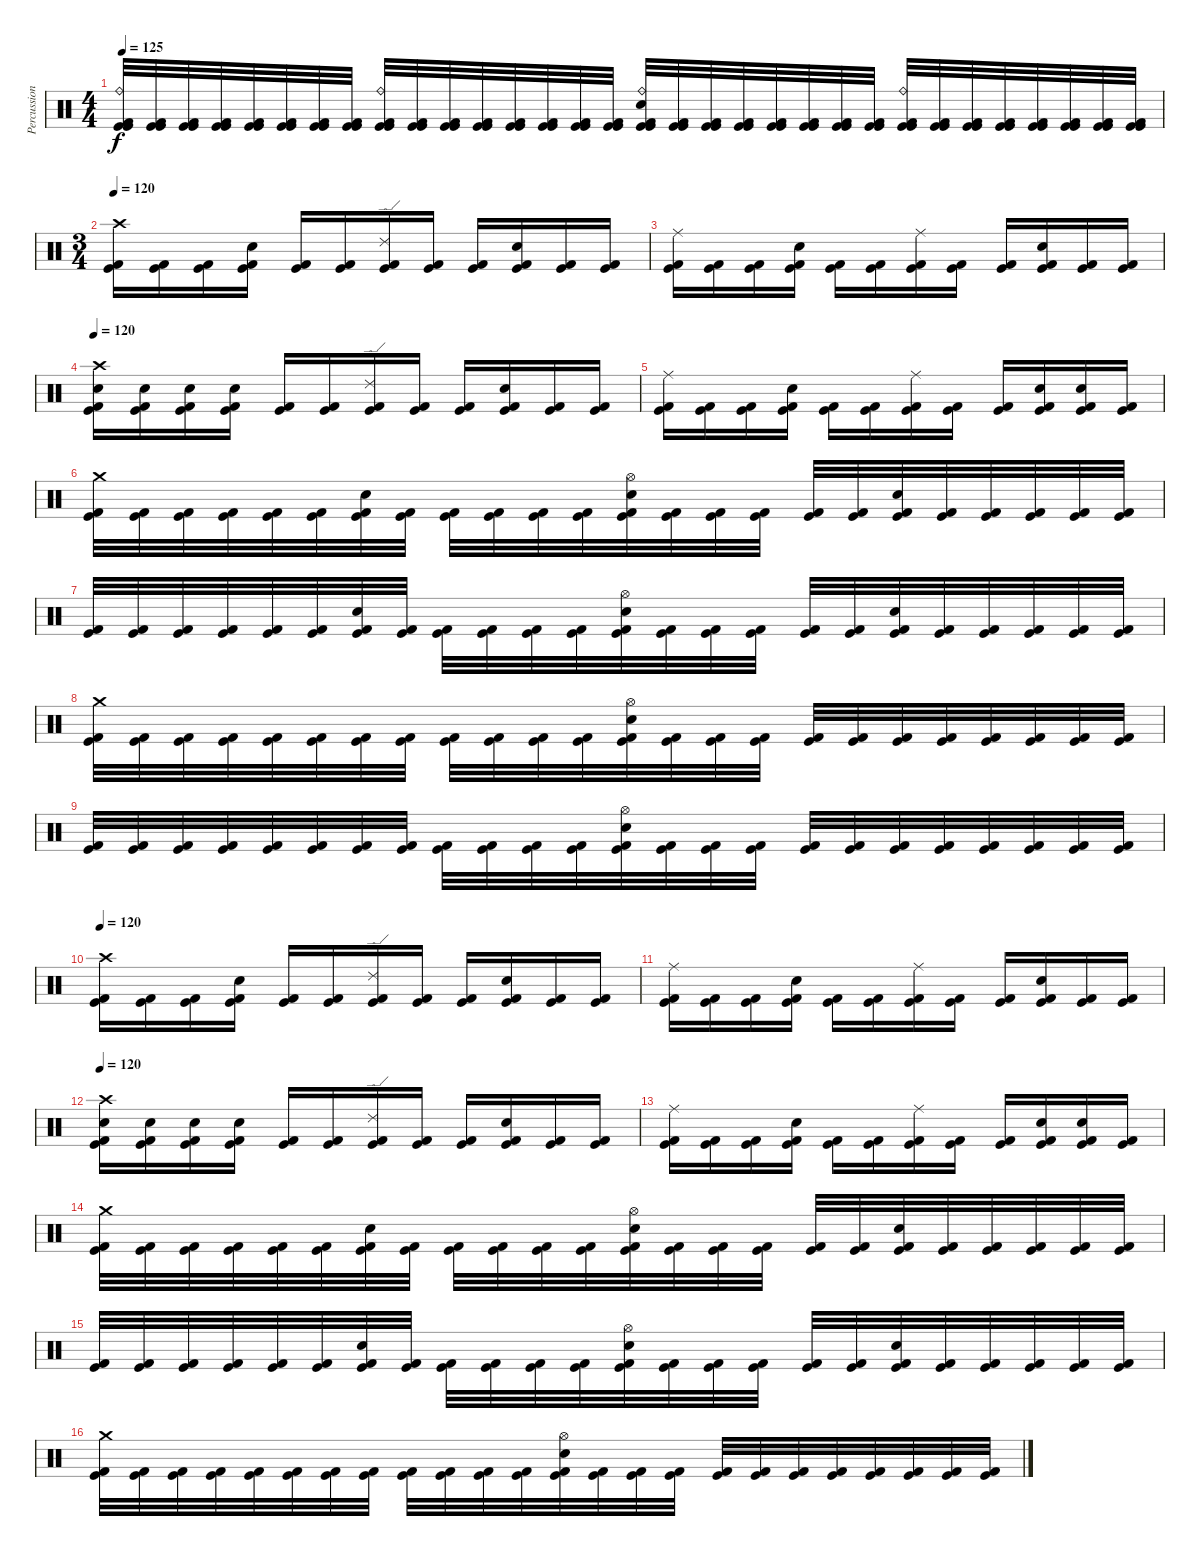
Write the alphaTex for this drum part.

\track ("Percussion" "Percussion") {instrument percussion}
\staff {score}
\articulation defaults
\ts (4 4)
\tempo 125
\clef neutral
\ks c
("Kick (hit)" "Ride (bell)" "Kick (hit)" "Kick (hit) 2").32{dy f} ("Kick (hit)" "Kick (hit)" "Kick (hit) 2").32 ("Kick (hit)" "Kick (hit)" "Kick (hit) 2").32 ("Kick (hit)" "Kick (hit)" "Kick (hit) 2").32 ("Kick (hit)" "Kick (hit)" "Kick (hit) 2").32 ("Kick (hit)" "Kick (hit)" "Kick (hit) 2").32 ("Kick (hit)" "Kick (hit)" "Kick (hit) 2").32 ("Kick (hit)" "Kick (hit)" "Kick (hit) 2").32 ("Kick (hit)" "Ride (bell)" "Kick (hit)" "Kick (hit) 2").32 ("Kick (hit)" "Kick (hit)" "Kick (hit) 2").32 ("Kick (hit)" "Kick (hit)" "Kick (hit) 2").32 ("Kick (hit)" "Kick (hit)" "Kick (hit) 2").32 ("Kick (hit)" "Kick (hit)" "Kick (hit) 2").32 ("Kick (hit)" "Kick (hit)" "Kick (hit) 2").32 ("Kick (hit)" "Kick (hit)" "Kick (hit) 2").32 ("Kick (hit)" "Kick (hit)" "Kick (hit) 2").32 ("Kick (hit)" "Electric Snare (hit)" "Ride (bell)" "Kick (hit)" "Kick (hit) 2").32 ("Kick (hit)" "Kick (hit)" "Kick (hit) 2").32 ("Kick (hit)" "Kick (hit)" "Kick (hit) 2").32 ("Kick (hit)" "Kick (hit)" "Kick (hit) 2").32 ("Kick (hit)" "Kick (hit)" "Kick (hit) 2").32 ("Kick (hit)" "Kick (hit)" "Kick (hit) 2").32 ("Kick (hit)" "Kick (hit)" "Kick (hit) 2").32 ("Kick (hit)" "Kick (hit)" "Kick (hit) 2").32 ("Kick (hit)" "Ride (bell)" "Kick (hit)" "Kick (hit) 2").32 ("Kick (hit)" "Kick (hit)" "Kick (hit) 2").32 ("Kick (hit)" "Kick (hit)" "Kick (hit) 2").32 ("Kick (hit)" "Kick (hit)" "Kick (hit) 2").32 ("Kick (hit)" "Kick (hit)" "Kick (hit) 2").32 ("Kick (hit)" "Kick (hit)" "Kick (hit) 2").32 ("Kick (hit)" "Kick (hit)" "Kick (hit) 2").32 ("Kick (hit)" "Kick (hit)" "Kick (hit) 2").32 |
\ts (3 4)
\tempo 120
("Crash high (hit)" "Kick (hit)" "Kick (hit) 2").16 ("Kick (hit)" "Kick (hit) 2").16 ("Kick (hit)" "Kick (hit) 2").16 ("Electric Snare (hit)" "Kick (hit)" "Kick (hit) 2").16 ("Kick (hit)" "Kick (hit) 2").16 ("Kick (hit)" "Kick (hit) 2").16 ("Ride (edge) 2" "Kick (hit)" "Kick (hit) 2").16 ("Kick (hit)" "Kick (hit) 2").16 ("Kick (hit)" "Kick (hit) 2").16 ("Electric Snare (hit)" "Kick (hit)" "Kick (hit) 2").16 ("Kick (hit)" "Kick (hit) 2").16 ("Kick (hit)" "Kick (hit) 2").16 |
("Ride (middle)" "Kick (hit)" "Kick (hit) 2").16 ("Kick (hit)" "Kick (hit) 2").16 ("Kick (hit)" "Kick (hit) 2").16 ("Electric Snare (hit)" "Kick (hit)" "Kick (hit) 2").16 ("Kick (hit)" "Kick (hit) 2").16 ("Kick (hit)" "Kick (hit) 2").16 ("Ride (middle)" "Kick (hit)" "Kick (hit) 2").16 ("Kick (hit)" "Kick (hit) 2").16 ("Kick (hit)" "Kick (hit) 2").16 ("Electric Snare (hit)" "Kick (hit)" "Kick (hit) 2").16 ("Kick (hit)" "Kick (hit) 2").16 ("Kick (hit)" "Kick (hit) 2").16 |
\tempo 120
("Crash high (hit)" "Electric Snare (hit)" "Kick (hit)" "Kick (hit) 2").16 ("Electric Snare (hit)" "Kick (hit)" "Kick (hit) 2").16 ("Electric Snare (hit)" "Kick (hit)" "Kick (hit) 2").16 ("Electric Snare (hit)" "Kick (hit)" "Kick (hit) 2").16 ("Kick (hit)" "Kick (hit) 2").16 ("Kick (hit)" "Kick (hit) 2").16 ("Ride (edge) 2" "Kick (hit)" "Kick (hit) 2").16 ("Kick (hit)" "Kick (hit) 2").16 ("Kick (hit)" "Kick (hit) 2").16 ("Electric Snare (hit)" "Kick (hit)" "Kick (hit) 2").16 ("Kick (hit)" "Kick (hit) 2").16 ("Kick (hit)" "Kick (hit) 2").16 |
("Ride (middle)" "Kick (hit)" "Kick (hit) 2").16 ("Kick (hit)" "Kick (hit) 2").16 ("Kick (hit)" "Kick (hit) 2").16 ("Electric Snare (hit)" "Kick (hit)" "Kick (hit) 2").16 ("Kick (hit)" "Kick (hit) 2").16 ("Kick (hit)" "Kick (hit) 2").16 ("Ride (middle)" "Kick (hit)" "Kick (hit) 2").16 ("Kick (hit)" "Kick (hit) 2").16 ("Kick (hit)" "Kick (hit) 2").16 ("Electric Snare (hit)" "Kick (hit)" "Kick (hit) 2").16 ("Electric Snare (hit)" "Kick (hit)" "Kick (hit) 2").16 ("Kick (hit)" "Kick (hit) 2").16 |
("Kick (hit)" "Crash medium (hit)" "Kick (hit) 2").32 ("Kick (hit)" "Kick (hit) 2").32 ("Kick (hit)" "Kick (hit) 2").32 ("Kick (hit)" "Kick (hit) 2").32 ("Kick (hit)" "Kick (hit) 2").32 ("Kick (hit)" "Kick (hit) 2").32 ("Kick (hit)" "Electric Snare (hit)" "Kick (hit) 2").32 ("Kick (hit)" "Kick (hit) 2").32 ("Kick (hit)" "Kick (hit) 2").32 ("Kick (hit)" "Kick (hit) 2").32 ("Kick (hit)" "Kick (hit) 2").32 ("Kick (hit)" "Kick (hit) 2").32 ("Hi-Hat (open)" "Kick (hit)" "Electric Snare (hit)" "Kick (hit) 2").32 ("Kick (hit)" "Kick (hit) 2").32 ("Kick (hit)" "Kick (hit) 2").32 ("Kick (hit)" "Kick (hit) 2").32 ("Kick (hit)" "Kick (hit) 2").32 ("Kick (hit)" "Kick (hit) 2").32 ("Kick (hit)" "Electric Snare (hit)" "Kick (hit) 2").32 ("Kick (hit)" "Kick (hit) 2").32 ("Kick (hit)" "Kick (hit) 2").32 ("Kick (hit)" "Kick (hit) 2").32 ("Kick (hit)" "Kick (hit) 2").32 ("Kick (hit)" "Kick (hit) 2").32 |
("Kick (hit)" "Kick (hit) 2").32 ("Kick (hit)" "Kick (hit) 2").32 ("Kick (hit)" "Kick (hit) 2").32 ("Kick (hit)" "Kick (hit) 2").32 ("Kick (hit)" "Kick (hit) 2").32 ("Kick (hit)" "Kick (hit) 2").32 ("Kick (hit)" "Electric Snare (hit)" "Kick (hit) 2").32 ("Kick (hit)" "Kick (hit) 2").32 ("Kick (hit)" "Kick (hit) 2").32 ("Kick (hit)" "Kick (hit) 2").32 ("Kick (hit)" "Kick (hit) 2").32 ("Kick (hit)" "Kick (hit) 2").32 ("Hi-Hat (open)" "Kick (hit)" "Electric Snare (hit)" "Kick (hit) 2").32 ("Kick (hit)" "Kick (hit) 2").32 ("Kick (hit)" "Kick (hit) 2").32 ("Kick (hit)" "Kick (hit) 2").32 ("Kick (hit)" "Kick (hit) 2").32 ("Kick (hit)" "Kick (hit) 2").32 ("Kick (hit)" "Electric Snare (hit)" "Kick (hit) 2").32 ("Kick (hit)" "Kick (hit) 2").32 ("Kick (hit)" "Kick (hit) 2").32 ("Kick (hit)" "Kick (hit) 2").32 ("Kick (hit)" "Kick (hit) 2").32 ("Kick (hit)" "Kick (hit) 2").32 |
("Kick (hit)" "Crash medium (hit)" "Kick (hit) 2").32 ("Kick (hit)" "Kick (hit) 2").32 ("Kick (hit)" "Kick (hit) 2").32 ("Kick (hit)" "Kick (hit) 2").32 ("Kick (hit)" "Kick (hit) 2").32 ("Kick (hit)" "Kick (hit) 2").32 ("Kick (hit)" "Kick (hit) 2").32 ("Kick (hit)" "Kick (hit) 2").32 ("Kick (hit)" "Kick (hit) 2").32 ("Kick (hit)" "Kick (hit) 2").32 ("Kick (hit)" "Kick (hit) 2").32 ("Kick (hit)" "Kick (hit) 2").32 ("Hi-Hat (open)" "Kick (hit)" "Electric Snare (hit)" "Kick (hit) 2").32 ("Kick (hit)" "Kick (hit) 2").32 ("Kick (hit)" "Kick (hit) 2").32 ("Kick (hit)" "Kick (hit) 2").32 ("Kick (hit)" "Kick (hit) 2").32 ("Kick (hit)" "Kick (hit) 2").32 ("Kick (hit)" "Kick (hit) 2").32 ("Kick (hit)" "Kick (hit) 2").32 ("Kick (hit)" "Kick (hit) 2").32 ("Kick (hit)" "Kick (hit) 2").32 ("Kick (hit)" "Kick (hit) 2").32 ("Kick (hit)" "Kick (hit) 2").32 |
("Kick (hit)" "Kick (hit) 2").32 ("Kick (hit)" "Kick (hit) 2").32 ("Kick (hit)" "Kick (hit) 2").32 ("Kick (hit)" "Kick (hit) 2").32 ("Kick (hit)" "Kick (hit) 2").32 ("Kick (hit)" "Kick (hit) 2").32 ("Kick (hit)" "Kick (hit) 2").32 ("Kick (hit)" "Kick (hit) 2").32 ("Kick (hit)" "Kick (hit) 2").32 ("Kick (hit)" "Kick (hit) 2").32 ("Kick (hit)" "Kick (hit) 2").32 ("Kick (hit)" "Kick (hit) 2").32 ("Hi-Hat (open)" "Kick (hit)" "Electric Snare (hit)" "Kick (hit) 2").32 ("Kick (hit)" "Kick (hit) 2").32 ("Kick (hit)" "Kick (hit) 2").32 ("Kick (hit)" "Kick (hit) 2").32 ("Kick (hit)" "Kick (hit) 2").32 ("Kick (hit)" "Kick (hit) 2").32 ("Kick (hit)" "Kick (hit) 2").32 ("Kick (hit)" "Kick (hit) 2").32 ("Kick (hit)" "Kick (hit) 2").32 ("Kick (hit)" "Kick (hit) 2").32 ("Kick (hit)" "Kick (hit) 2").32 ("Kick (hit)" "Kick (hit) 2").32 |
\tempo 120
("Crash high (hit)" "Kick (hit)" "Kick (hit) 2").16 ("Kick (hit)" "Kick (hit) 2").16 ("Kick (hit)" "Kick (hit) 2").16 ("Electric Snare (hit)" "Kick (hit)" "Kick (hit) 2").16 ("Kick (hit)" "Kick (hit) 2").16 ("Kick (hit)" "Kick (hit) 2").16 ("Ride (edge) 2" "Kick (hit)" "Kick (hit) 2").16 ("Kick (hit)" "Kick (hit) 2").16 ("Kick (hit)" "Kick (hit) 2").16 ("Electric Snare (hit)" "Kick (hit)" "Kick (hit) 2").16 ("Kick (hit)" "Kick (hit) 2").16 ("Kick (hit)" "Kick (hit) 2").16 |
("Ride (middle)" "Kick (hit)" "Kick (hit) 2").16 ("Kick (hit)" "Kick (hit) 2").16 ("Kick (hit)" "Kick (hit) 2").16 ("Electric Snare (hit)" "Kick (hit)" "Kick (hit) 2").16 ("Kick (hit)" "Kick (hit) 2").16 ("Kick (hit)" "Kick (hit) 2").16 ("Ride (middle)" "Kick (hit)" "Kick (hit) 2").16 ("Kick (hit)" "Kick (hit) 2").16 ("Kick (hit)" "Kick (hit) 2").16 ("Electric Snare (hit)" "Kick (hit)" "Kick (hit) 2").16 ("Kick (hit)" "Kick (hit) 2").16 ("Kick (hit)" "Kick (hit) 2").16 |
\tempo 120
("Crash high (hit)" "Electric Snare (hit)" "Kick (hit)" "Kick (hit) 2").16 ("Electric Snare (hit)" "Kick (hit)" "Kick (hit) 2").16 ("Electric Snare (hit)" "Kick (hit)" "Kick (hit) 2").16 ("Electric Snare (hit)" "Kick (hit)" "Kick (hit) 2").16 ("Kick (hit)" "Kick (hit) 2").16 ("Kick (hit)" "Kick (hit) 2").16 ("Ride (edge) 2" "Kick (hit)" "Kick (hit) 2").16 ("Kick (hit)" "Kick (hit) 2").16 ("Kick (hit)" "Kick (hit) 2").16 ("Electric Snare (hit)" "Kick (hit)" "Kick (hit) 2").16 ("Kick (hit)" "Kick (hit) 2").16 ("Kick (hit)" "Kick (hit) 2").16 |
("Ride (middle)" "Kick (hit)" "Kick (hit) 2").16 ("Kick (hit)" "Kick (hit) 2").16 ("Kick (hit)" "Kick (hit) 2").16 ("Electric Snare (hit)" "Kick (hit)" "Kick (hit) 2").16 ("Kick (hit)" "Kick (hit) 2").16 ("Kick (hit)" "Kick (hit) 2").16 ("Ride (middle)" "Kick (hit)" "Kick (hit) 2").16 ("Kick (hit)" "Kick (hit) 2").16 ("Kick (hit)" "Kick (hit) 2").16 ("Electric Snare (hit)" "Kick (hit)" "Kick (hit) 2").16 ("Electric Snare (hit)" "Kick (hit)" "Kick (hit) 2").16 ("Kick (hit)" "Kick (hit) 2").16 |
("Kick (hit)" "Crash medium (hit)" "Kick (hit) 2").32 ("Kick (hit)" "Kick (hit) 2").32 ("Kick (hit)" "Kick (hit) 2").32 ("Kick (hit)" "Kick (hit) 2").32 ("Kick (hit)" "Kick (hit) 2").32 ("Kick (hit)" "Kick (hit) 2").32 ("Kick (hit)" "Electric Snare (hit)" "Kick (hit) 2").32 ("Kick (hit)" "Kick (hit) 2").32 ("Kick (hit)" "Kick (hit) 2").32 ("Kick (hit)" "Kick (hit) 2").32 ("Kick (hit)" "Kick (hit) 2").32 ("Kick (hit)" "Kick (hit) 2").32 ("Hi-Hat (open)" "Kick (hit)" "Electric Snare (hit)" "Kick (hit) 2").32 ("Kick (hit)" "Kick (hit) 2").32 ("Kick (hit)" "Kick (hit) 2").32 ("Kick (hit)" "Kick (hit) 2").32 ("Kick (hit)" "Kick (hit) 2").32 ("Kick (hit)" "Kick (hit) 2").32 ("Kick (hit)" "Electric Snare (hit)" "Kick (hit) 2").32 ("Kick (hit)" "Kick (hit) 2").32 ("Kick (hit)" "Kick (hit) 2").32 ("Kick (hit)" "Kick (hit) 2").32 ("Kick (hit)" "Kick (hit) 2").32 ("Kick (hit)" "Kick (hit) 2").32 |
("Kick (hit)" "Kick (hit) 2").32 ("Kick (hit)" "Kick (hit) 2").32 ("Kick (hit)" "Kick (hit) 2").32 ("Kick (hit)" "Kick (hit) 2").32 ("Kick (hit)" "Kick (hit) 2").32 ("Kick (hit)" "Kick (hit) 2").32 ("Kick (hit)" "Electric Snare (hit)" "Kick (hit) 2").32 ("Kick (hit)" "Kick (hit) 2").32 ("Kick (hit)" "Kick (hit) 2").32 ("Kick (hit)" "Kick (hit) 2").32 ("Kick (hit)" "Kick (hit) 2").32 ("Kick (hit)" "Kick (hit) 2").32 ("Hi-Hat (open)" "Kick (hit)" "Electric Snare (hit)" "Kick (hit) 2").32 ("Kick (hit)" "Kick (hit) 2").32 ("Kick (hit)" "Kick (hit) 2").32 ("Kick (hit)" "Kick (hit) 2").32 ("Kick (hit)" "Kick (hit) 2").32 ("Kick (hit)" "Kick (hit) 2").32 ("Kick (hit)" "Electric Snare (hit)" "Kick (hit) 2").32 ("Kick (hit)" "Kick (hit) 2").32 ("Kick (hit)" "Kick (hit) 2").32 ("Kick (hit)" "Kick (hit) 2").32 ("Kick (hit)" "Kick (hit) 2").32 ("Kick (hit)" "Kick (hit) 2").32 |
("Kick (hit)" "Crash medium (hit)" "Kick (hit) 2").32 ("Kick (hit)" "Kick (hit) 2").32 ("Kick (hit)" "Kick (hit) 2").32 ("Kick (hit)" "Kick (hit) 2").32 ("Kick (hit)" "Kick (hit) 2").32 ("Kick (hit)" "Kick (hit) 2").32 ("Kick (hit)" "Kick (hit) 2").32 ("Kick (hit)" "Kick (hit) 2").32 ("Kick (hit)" "Kick (hit) 2").32 ("Kick (hit)" "Kick (hit) 2").32 ("Kick (hit)" "Kick (hit) 2").32 ("Kick (hit)" "Kick (hit) 2").32 ("Hi-Hat (open)" "Kick (hit)" "Electric Snare (hit)" "Kick (hit) 2").32 ("Kick (hit)" "Kick (hit) 2").32 ("Kick (hit)" "Kick (hit) 2").32 ("Kick (hit)" "Kick (hit) 2").32 ("Kick (hit)" "Kick (hit) 2").32 ("Kick (hit)" "Kick (hit) 2").32 ("Kick (hit)" "Kick (hit) 2").32 ("Kick (hit)" "Kick (hit) 2").32 ("Kick (hit)" "Kick (hit) 2").32 ("Kick (hit)" "Kick (hit) 2").32 ("Kick (hit)" "Kick (hit) 2").32 ("Kick (hit)" "Kick (hit) 2").32
